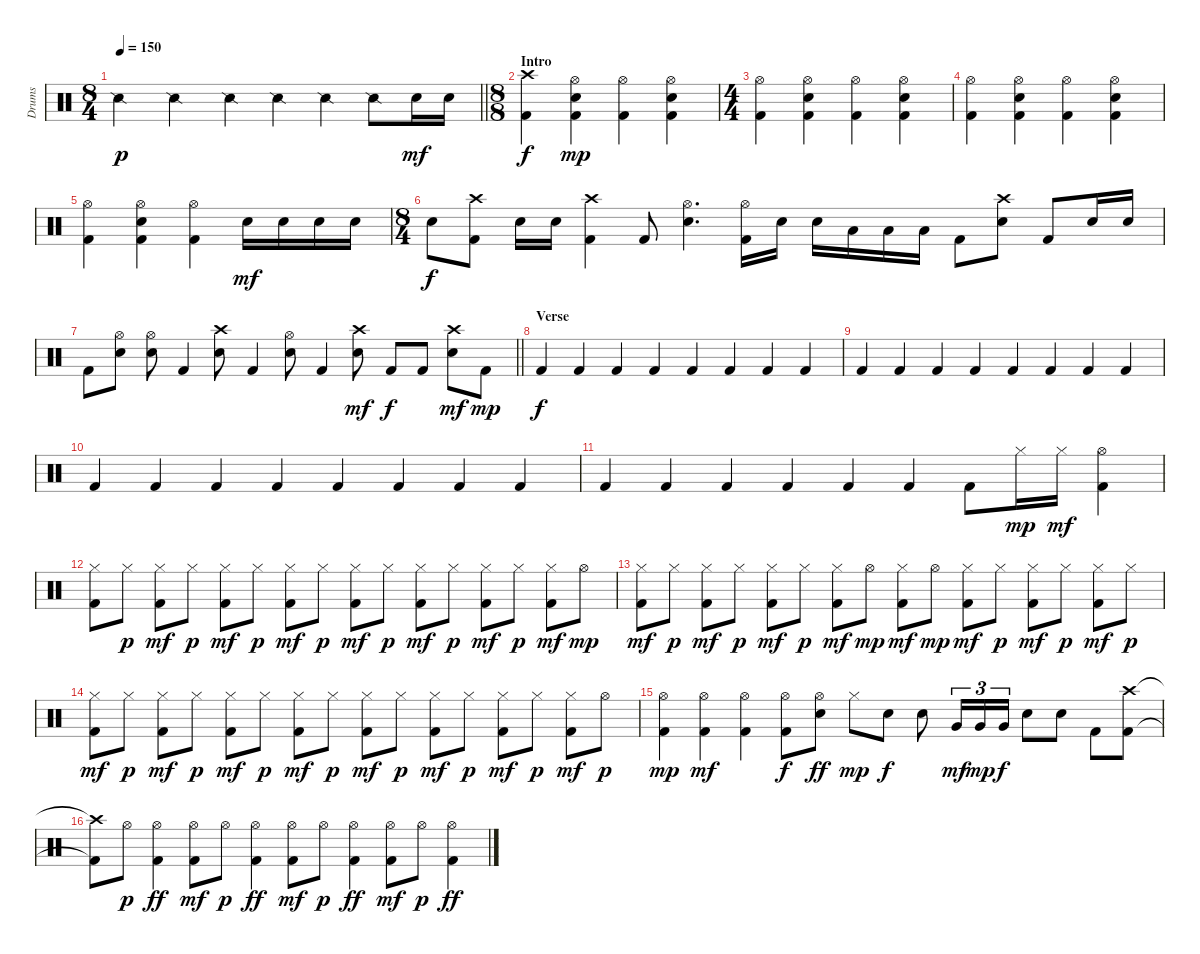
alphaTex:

\track ("Drums" "Drums") {instrument percussion}
\staff {score}
\articulation defaults
\ts (8 4)
\tempo 150
\clef neutral
\barLineRight lightlight
\ks c "Snare (side stick) 2".2{dy p} "Snare (side stick) 2".2 "Snare (side stick) 2".4 "Snare (side stick) 2".4 "Snare (side stick) 2".4 "Snare (side stick) 2".8 "Electric Snare (hit)".16{dy mf} "Electric Snare (hit)".16
|
\ts (8 8)
\section ("" "Intro")
("Crash high (hit)" "Kick (hit) 2").4{dy f} ("Hi-Hat (open)" "Electric Snare (hit)" "Kick (hit) 2").4{dy mp} ("Hi-Hat (open)" "Kick (hit) 2").4 ("Hi-Hat (open)" "Electric Snare (hit)" "Kick (hit) 2").4 |
\ts (4 4)
("Hi-Hat (open)" "Kick (hit) 2").4 ("Hi-Hat (open)" "Electric Snare (hit)" "Kick (hit) 2").4 ("Hi-Hat (open)" "Kick (hit) 2").4 ("Hi-Hat (open)" "Electric Snare (hit)" "Kick (hit) 2").4 |
("Hi-Hat (open)" "Kick (hit) 2").4 ("Hi-Hat (open)" "Electric Snare (hit)" "Kick (hit) 2").4 ("Hi-Hat (open)" "Kick (hit) 2").4 ("Hi-Hat (open)" "Electric Snare (hit)" "Kick (hit) 2").4 |
("Hi-Hat (open)" "Kick (hit) 2").4 ("Hi-Hat (open)" "Electric Snare (hit)" "Kick (hit) 2").4 ("Hi-Hat (open)" "Kick (hit) 2").4 "Electric Snare (hit)".16{dy mf} "Electric Snare (hit)".16 "Electric Snare (hit)".16 "Electric Snare (hit)".16 |
\ts (8 4)
"Electric Snare (hit)".8{dy f} ("Crash high (hit)" "Kick (hit) 2").8 "Electric Snare (hit)".16 "Electric Snare (hit)".16 ("Crash high (hit)" "Kick (hit) 2").4 "Kick (hit) 2".8 ("Hi-Hat (open)" "Electric Snare (hit)").4{d} ("Hi-Hat (open)" "Kick (hit) 2").16 "Electric Snare (hit)".16 "Electric Snare (hit)".16 "Low Tom (hit)".16 "Low Tom (hit)".16 "Low Tom (hit)".16 "Kick (hit) 2".8 ("Crash high (hit)" "Electric Snare (hit)").8 "Kick (hit) 2".8 "Electric Snare (hit)".16 "Electric Snare (hit)".16 |
\barLineRight lightlight "Kick (hit) 2".8
("Hi-Hat (open)" "Electric Snare (hit)").8 ("Hi-Hat (open)" "Electric Snare (hit)").8 "Kick (hit) 2".4 ("Crash high (hit)" "Electric Snare (hit)").8 "Kick (hit) 2".4 ("Hi-Hat (open)" "Electric Snare (hit)").8 "Kick (hit) 2".4 ("Crash high (hit)" "Electric Snare (hit)").8{dy mf} "Kick (hit) 2".8{dy f} "Kick (hit) 2".8 ("Crash high (hit)" "Electric Snare (hit)").8{dy mf} "Kick (hit) 2".8{dy mp} |
\section ("" "Verse")
"Kick (hit) 2".4{dy f} "Kick (hit) 2".4 "Kick (hit) 2".4 "Kick (hit) 2".4 "Kick (hit) 2".4 "Kick (hit) 2".4 "Kick (hit) 2".4 "Kick (hit) 2".4 |
"Kick (hit) 2".4 "Kick (hit) 2".4 "Kick (hit) 2".4 "Kick (hit) 2".4 "Kick (hit) 2".4 "Kick (hit) 2".4 "Kick (hit) 2".4 "Kick (hit) 2".4 |
"Kick (hit) 2".4 "Kick (hit) 2".4 "Kick (hit) 2".4 "Kick (hit) 2".4 "Kick (hit) 2".4 "Kick (hit) 2".4 "Kick (hit) 2".4 "Kick (hit) 2".4 |
"Kick (hit) 2".4 "Kick (hit) 2".4 "Kick (hit) 2".4 "Kick (hit) 2".4 "Kick (hit) 2".4 "Kick (hit) 2".4 "Kick (hit) 2".8 "Hi-Hat (closed)".16{dy mp} "Hi-Hat (closed)".16{dy mf} ("Hi-Hat (open)" "Kick (hit) 2").4 |
("Hi-Hat (closed)" "Kick (hit) 2").8 "Hi-Hat (closed)".8{dy p} ("Hi-Hat (closed)" "Kick (hit) 2").8{dy mf} "Hi-Hat (closed)".8{dy p} ("Hi-Hat (closed)" "Kick (hit) 2").8{dy mf} "Hi-Hat (closed)".8{dy p} ("Hi-Hat (closed)" "Kick (hit) 2").8{dy mf} "Hi-Hat (closed)".8{dy p} ("Hi-Hat (closed)" "Kick (hit) 2").8{dy mf} "Hi-Hat (closed)".8{dy p} ("Hi-Hat (closed)" "Kick (hit) 2").8{dy mf} "Hi-Hat (closed)".8{dy p} ("Hi-Hat (closed)" "Kick (hit) 2").8{dy mf} "Hi-Hat (closed)".8{dy p} ("Hi-Hat (closed)" "Kick (hit) 2").8{dy mf} "Hi-Hat (open)".8{dy mp} |
("Hi-Hat (closed)" "Kick (hit) 2").8{dy mf} "Hi-Hat (closed)".8{dy p} ("Hi-Hat (closed)" "Kick (hit) 2").8{dy mf} "Hi-Hat (closed)".8{dy p} ("Hi-Hat (closed)" "Kick (hit) 2").8{dy mf} "Hi-Hat (closed)".8{dy p} ("Hi-Hat (closed)" "Kick (hit) 2").8{dy mf} "Hi-Hat (open)".8{dy mp} ("Hi-Hat (closed)" "Kick (hit) 2").8{dy mf} "Hi-Hat (open)".8{dy mp} ("Hi-Hat (closed)" "Kick (hit) 2").8{dy mf} "Hi-Hat (closed)".8{dy p} ("Hi-Hat (closed)" "Kick (hit) 2").8{dy mf} "Hi-Hat (closed)".8{dy p} ("Hi-Hat (closed)" "Kick (hit) 2").8{dy mf} "Hi-Hat (closed)".8{dy p} |
("Hi-Hat (closed)" "Kick (hit) 2").8{dy mf} "Hi-Hat (closed)".8{dy p} ("Hi-Hat (closed)" "Kick (hit) 2").8{dy mf} "Hi-Hat (closed)".8{dy p} ("Hi-Hat (closed)" "Kick (hit) 2").8{dy mf} "Hi-Hat (closed)".8{dy p} ("Hi-Hat (closed)" "Kick (hit) 2").8{dy mf} "Hi-Hat (closed)".8{dy p} ("Hi-Hat (closed)" "Kick (hit) 2").8{dy mf} "Hi-Hat (closed)".8{dy p} ("Hi-Hat (closed)" "Kick (hit) 2").8{dy mf} "Hi-Hat (closed)".8{dy p} ("Hi-Hat (closed)" "Kick (hit) 2").8{dy mf} "Hi-Hat (closed)".8{dy p} ("Hi-Hat (closed)" "Kick (hit) 2").8{dy mf} "Hi-Hat (open)".8{dy p} |
("Hi-Hat (open)" "Kick (hit) 2").4{dy mp} ("Hi-Hat (open)" "Kick (hit) 2").4{dy mf} ("Hi-Hat (open)" "Kick (hit) 2").4 ("Hi-Hat (open)" "Kick (hit) 2").8{dy f} ("Hi-Hat (open)" "Electric Snare (hit)").8{dy ff} "Hi-Hat (closed)".8{dy mp} "Electric Snare (hit)".8{dy f} "Electric Snare (hit)".8 "Very Low Tom (hit)".16{tu (3 2) dy mf} "Very Low Tom (hit)".16{tu (3 2) dy mp} "Very Low Tom (hit)".16{tu (3 2) dy f} "Electric Snare (hit)".8 "Electric Snare (hit)".8 "Kick (hit) 2".8 ("Crash high (hit)" "Kick (hit) 2").8 |
("Crash high (hit)"{t} "Kick (hit) 2"{t}).8 "Hi-Hat (open)".8{dy p} ("Hi-Hat (open)" "Kick (hit) 2").4{dy ff} ("Hi-Hat (open)" "Kick (hit) 2").8{dy mf} "Hi-Hat (open)".8{dy p} ("Hi-Hat (open)" "Kick (hit) 2").4{dy ff} ("Hi-Hat (open)" "Kick (hit) 2").8{dy mf} "Hi-Hat (open)".8{dy p} ("Hi-Hat (open)" "Kick (hit) 2").4{dy ff} ("Hi-Hat (open)" "Kick (hit) 2").8{dy mf} "Hi-Hat (open)".8{dy p} ("Hi-Hat (open)" "Kick (hit) 2").4{dy ff}
